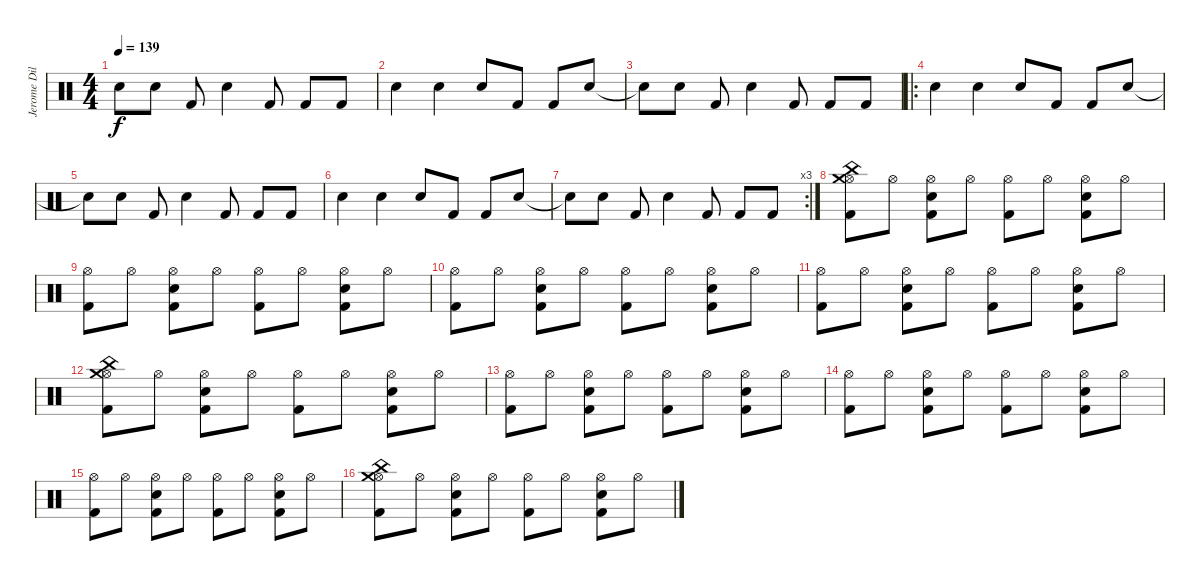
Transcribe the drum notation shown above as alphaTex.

\track ("Jerome Dillon - Batería" "Jerome Dil") {instrument percussion}
\staff {score}
\articulation defaults
\ts (4 4)
\tempo 139
\clef neutral
\ks c "Snare (hit) 2"{t}.8{dy f} "Snare (hit) 2".8 "Kick (hit) 2".8 "Snare (hit) 2".4 "Kick (hit) 2".8 "Kick (hit) 2".8 "Kick (hit) 2".8
|
"Snare (hit) 2".4 "Snare (hit) 2".4 "Snare (hit) 2".8 "Kick (hit) 2".8 "Kick (hit) 2".8 "Snare (hit) 2".8 |
"Snare (hit) 2"{t}.8 "Snare (hit) 2".8 "Kick (hit) 2".8 "Snare (hit) 2".4 "Kick (hit) 2".8 "Kick (hit) 2".8 "Kick (hit) 2".8 |
\ro "Snare (hit) 2".4 "Snare (hit) 2".4 "Snare (hit) 2".8 "Kick (hit) 2".8 "Kick (hit) 2".8 "Snare (hit) 2".8
|
"Snare (hit) 2"{t}.8 "Snare (hit) 2".8 "Kick (hit) 2".8 "Snare (hit) 2".4 "Kick (hit) 2".8 "Kick (hit) 2".8 "Kick (hit) 2".8 |
"Snare (hit) 2".4 "Snare (hit) 2".4 "Snare (hit) 2".8 "Kick (hit) 2".8 "Kick (hit) 2".8 "Snare (hit) 2".8 |
\rc 3 "Snare (hit) 2"{t}.8 "Snare (hit) 2".8 "Kick (hit) 2".8 "Snare (hit) 2".4 "Kick (hit) 2".8 "Kick (hit) 2".8 "Kick (hit) 2".8
|
("Hi-Hat (open)" "Kick (hit) 2" "China (hit)" "Crash medium (hit)").8 "Hi-Hat (open)".8 ("Hi-Hat (open)" "Kick (hit) 2" "Electric Snare (hit)").8 "Hi-Hat (open)".8 ("Hi-Hat (open)" "Kick (hit) 2").8 "Hi-Hat (open)".8 ("Hi-Hat (open)" "Electric Snare (hit)" "Kick (hit) 2").8 "Hi-Hat (open)".8 |
("Hi-Hat (open)" "Kick (hit) 2").8 "Hi-Hat (open)".8 ("Hi-Hat (open)" "Kick (hit) 2" "Electric Snare (hit)").8 "Hi-Hat (open)".8 ("Hi-Hat (open)" "Kick (hit) 2").8 "Hi-Hat (open)".8 ("Hi-Hat (open)" "Electric Snare (hit)" "Kick (hit) 2").8 "Hi-Hat (open)".8 |
("Hi-Hat (open)" "Kick (hit) 2").8 "Hi-Hat (open)".8 ("Hi-Hat (open)" "Kick (hit) 2" "Electric Snare (hit)").8 "Hi-Hat (open)".8 ("Hi-Hat (open)" "Kick (hit) 2").8 "Hi-Hat (open)".8 ("Hi-Hat (open)" "Electric Snare (hit)" "Kick (hit) 2").8 "Hi-Hat (open)".8 |
("Hi-Hat (open)" "Kick (hit) 2").8 "Hi-Hat (open)".8 ("Hi-Hat (open)" "Kick (hit) 2" "Electric Snare (hit)").8 "Hi-Hat (open)".8 ("Hi-Hat (open)" "Kick (hit) 2").8 "Hi-Hat (open)".8 ("Hi-Hat (open)" "Electric Snare (hit)" "Kick (hit) 2").8 "Hi-Hat (open)".8 |
("Hi-Hat (open)" "Kick (hit) 2" "Crash medium (hit)" "China (hit)").8 "Hi-Hat (open)".8 ("Hi-Hat (open)" "Kick (hit) 2" "Electric Snare (hit)").8 "Hi-Hat (open)".8 ("Hi-Hat (open)" "Kick (hit) 2").8 "Hi-Hat (open)".8 ("Hi-Hat (open)" "Electric Snare (hit)" "Kick (hit) 2").8 "Hi-Hat (open)".8 |
("Hi-Hat (open)" "Kick (hit) 2").8 "Hi-Hat (open)".8 ("Hi-Hat (open)" "Kick (hit) 2" "Electric Snare (hit)").8 "Hi-Hat (open)".8 ("Hi-Hat (open)" "Kick (hit) 2").8 "Hi-Hat (open)".8 ("Hi-Hat (open)" "Electric Snare (hit)" "Kick (hit) 2").8 "Hi-Hat (open)".8 |
("Hi-Hat (open)" "Kick (hit) 2").8 "Hi-Hat (open)".8 ("Hi-Hat (open)" "Kick (hit) 2" "Electric Snare (hit)").8 "Hi-Hat (open)".8 ("Hi-Hat (open)" "Kick (hit) 2").8 "Hi-Hat (open)".8 ("Hi-Hat (open)" "Electric Snare (hit)" "Kick (hit) 2").8 "Hi-Hat (open)".8 |
("Hi-Hat (open)" "Kick (hit) 2").8 "Hi-Hat (open)".8 ("Hi-Hat (open)" "Kick (hit) 2" "Electric Snare (hit)").8 "Hi-Hat (open)".8 ("Hi-Hat (open)" "Kick (hit) 2").8 "Hi-Hat (open)".8 ("Hi-Hat (open)" "Electric Snare (hit)" "Kick (hit) 2").8 "Hi-Hat (open)".8 |
("Hi-Hat (open)" "Kick (hit) 2" "China (hit)" "Crash medium (hit)").8 "Hi-Hat (open)".8 ("Hi-Hat (open)" "Kick (hit) 2" "Electric Snare (hit)").8 "Hi-Hat (open)".8 ("Hi-Hat (open)" "Kick (hit) 2").8 "Hi-Hat (open)".8 ("Hi-Hat (open)" "Electric Snare (hit)" "Kick (hit) 2").8 "Hi-Hat (open)".8
